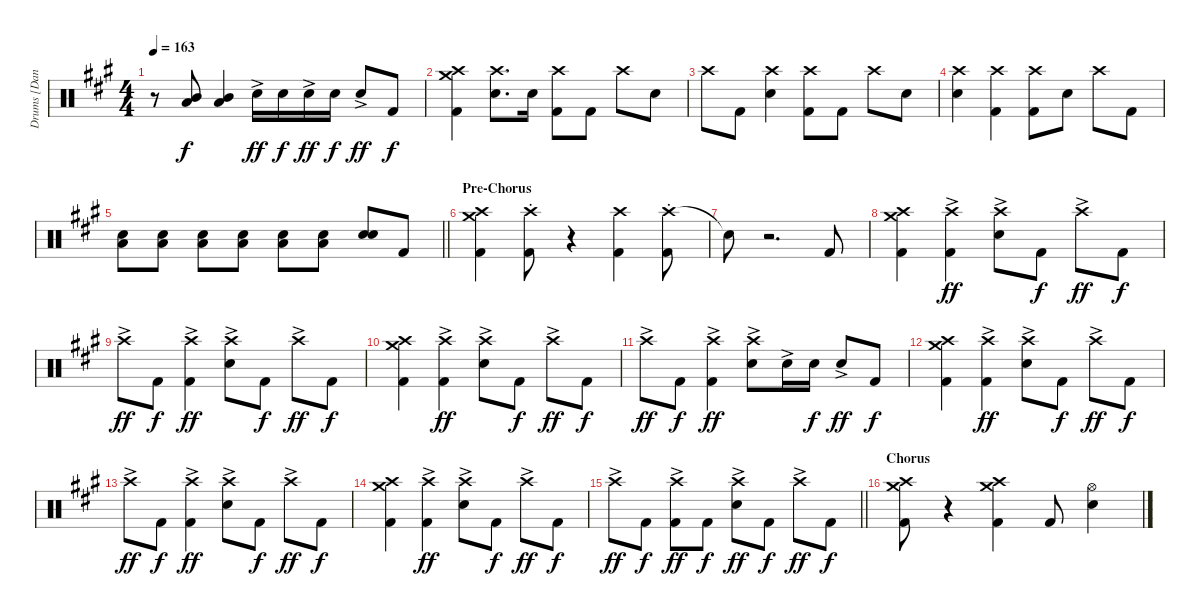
\track ("Drums [Daniel Davison]" "Drums [Dan") {instrument percussion}
\staff {score}
\articulation defaults
\ts (4 4)
\tempo 163
\clef neutral
\ks a
r.8{dy f} ("Mid Tom (hit)" "Low Tom (hit)").8 ("Mid Tom (hit)" "Low Tom (hit)").4 "Electric Snare (hit)"{ac}.16{dy ff} "Electric Snare (hit)".16{dy f} "Electric Snare (hit)"{ac}.16{dy ff} "Electric Snare (hit)".16{dy f} "Electric Snare (hit)"{ac}.8{dy ff} "Kick (hit) 2".8{dy f} |
("Crash medium (hit)" "Crash high (hit)" "Kick (hit) 2").4 ("Crash high (hit)" "Electric Snare (hit)").8{d} "Electric Snare (hit)".16 ("Crash high (hit)" "Kick (hit) 2").8 "Kick (hit) 2".8 "Crash high (hit)".8 "Electric Snare (hit)".8 |
"Crash high (hit)".8 "Kick (hit) 2".8 ("Crash high (hit)" "Electric Snare (hit)").4 ("Crash high (hit)" "Kick (hit) 2").8 "Kick (hit) 2".8 "Crash high (hit)".8 "Electric Snare (hit)".8 |
("Crash high (hit)" "Electric Snare (hit)").4 ("Crash high (hit)" "Kick (hit) 2").4 ("Crash high (hit)" "Kick (hit) 2").8 "Electric Snare (hit)".8 "Crash high (hit)".8 "Kick (hit) 2".8 |
\barLineRight lightlight
("Low Tom (hit)" "Electric Snare (hit)").8{volume 7} ("Low Tom (hit)" "Electric Snare (hit)").8{volume 14} ("Low Tom (hit)" "Electric Snare (hit)").8 ("Low Tom (hit)" "Electric Snare (hit)").8 ("Low Tom (hit)" "Electric Snare (hit)").8 ("Low Tom (hit)" "Electric Snare (hit)").8 ("Electric Snare (hit)" "Electric Snare (hit)").8 "Kick (hit) 2".8 |
\section ("" "Pre-Chorus")
("Crash medium (hit)" "Crash high (hit)" "Kick (hit) 2").4 ("Crash high (hit)"{st} "Kick (hit) 2").8 r.4{volume 0} ("Crash high (hit)" "Kick (hit) 2").4{volume 14} ("Crash high (hit)"{st} "Kick (hit) 2").8 |
"Snare (hit)"{t}.8 r.2{d volume 0} "Kick (hit) 2".8{volume 14} |
("Crash medium (hit)" "Crash high (hit)" "Kick (hit) 2").4 ("Crash high (hit)"{ac} "Kick (hit) 2").4{dy ff} ("Crash high (hit)"{ac} "Electric Snare (hit)").8 "Kick (hit) 2".8{dy f} "Crash high (hit)"{ac}.8{dy ff} "Kick (hit) 2".8{dy f} |
"Crash high (hit)"{ac}.8{dy ff} "Kick (hit) 2".8{dy f} ("Crash high (hit)"{ac} "Kick (hit) 2").4{dy ff} ("Crash high (hit)"{ac} "Electric Snare (hit)").8 "Kick (hit) 2".8{dy f} "Crash high (hit)"{ac}.8{dy ff} "Kick (hit) 2".8{dy f} |
("Crash medium (hit)" "Crash high (hit)" "Kick (hit) 2").4 ("Crash high (hit)"{ac} "Kick (hit) 2").4{dy ff} ("Crash high (hit)"{ac} "Electric Snare (hit)").8 "Kick (hit) 2".8{dy f} "Crash high (hit)"{ac}.8{dy ff} "Kick (hit) 2".8{dy f} |
"Crash high (hit)"{ac}.8{dy ff} "Kick (hit) 2".8{dy f} ("Crash high (hit)"{ac} "Kick (hit) 2").4{dy ff} ("Crash high (hit)"{ac} "Electric Snare (hit)").8 "Electric Snare (hit)"{ac}.16 "Electric Snare (hit)".16{dy f} "Electric Snare (hit)"{ac}.8{dy ff} "Kick (hit) 2".8{dy f} |
("Crash medium (hit)" "Crash high (hit)" "Kick (hit) 2").4 ("Crash high (hit)"{ac} "Kick (hit) 2").4{dy ff} ("Crash high (hit)"{ac} "Electric Snare (hit)").8 "Kick (hit) 2".8{dy f} "Crash high (hit)"{ac}.8{dy ff} "Kick (hit) 2".8{dy f} |
"Crash high (hit)"{ac}.8{dy ff} "Kick (hit) 2".8{dy f} ("Crash high (hit)"{ac} "Kick (hit) 2").4{dy ff} ("Crash high (hit)"{ac} "Electric Snare (hit)").8 "Kick (hit) 2".8{dy f} "Crash high (hit)"{ac}.8{dy ff} "Kick (hit) 2".8{dy f} |
("Crash medium (hit)" "Crash high (hit)" "Kick (hit) 2").4 ("Crash high (hit)"{ac} "Kick (hit) 2").4{dy ff} ("Crash high (hit)"{ac} "Electric Snare (hit)").8 "Kick (hit) 2".8{dy f} "Crash high (hit)"{ac}.8{dy ff} "Kick (hit) 2".8{dy f} |
\barLineRight lightlight "Crash high (hit)"{ac}.8{dy ff} "Kick (hit) 2".8{dy f}
("Crash high (hit)"{ac} "Kick (hit) 2").8{dy ff} "Kick (hit) 2".8{dy f} ("Crash high (hit)"{ac} "Electric Snare (hit)").8{dy ff} "Kick (hit) 2".8{dy f} "Crash high (hit)"{ac}.8{dy ff} "Kick (hit) 2".8{dy f} |
\section ("" "Chorus")
("Crash medium (hit)" "Crash high (hit)" "Kick (hit) 2").8 r.4{volume 0} ("Crash medium (hit)" "Crash high (hit)" "Kick (hit) 2").4{volume 14} "Kick (hit) 2".8 ("Hi-Hat (open)" "Electric Snare (hit)").4
